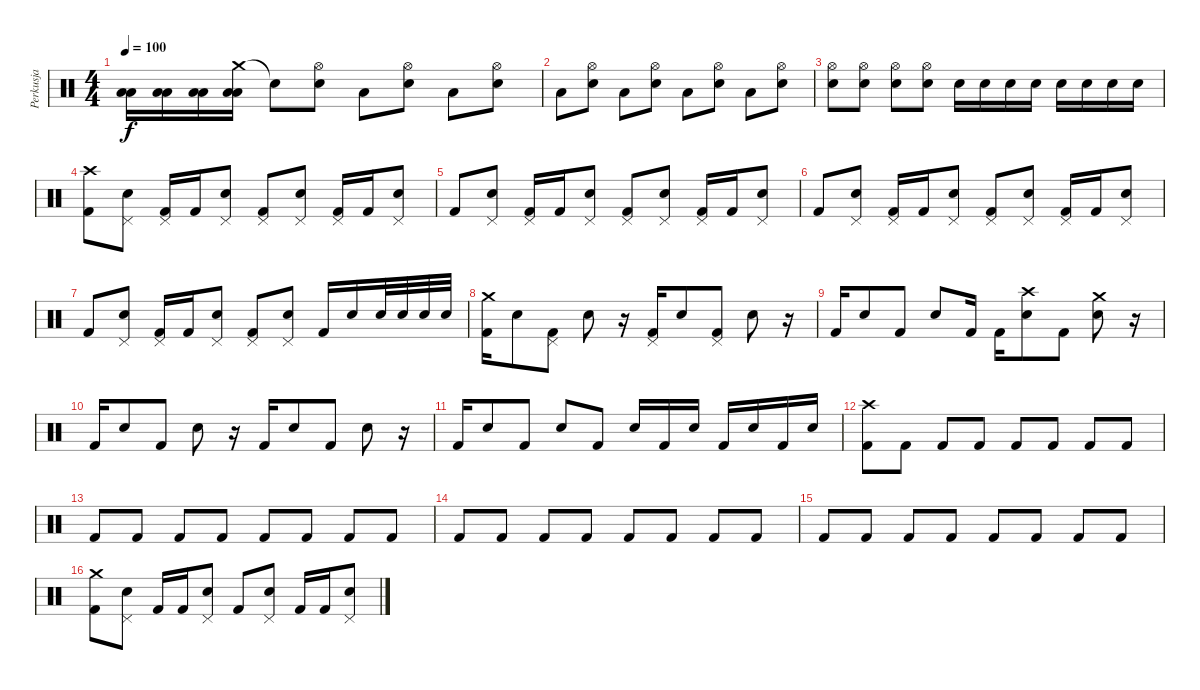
\track ("Perkusja" "Perkusja") {instrument percussion}
\staff {score}
\articulation defaults
\ts (4 4)
\tempo 100
\clef neutral
\ks c
("Low Tom (hit)" "Low Tom (hit)").16{dy f} ("Low Tom (hit)" "Low Tom (hit)").16 ("Low Tom (hit)" "Low Tom (hit)").16 ("Crash medium (hit)" "Low Tom (hit)" "Low Tom (hit)").16 "Snare (hit)"{t}.8 ("Hi-Hat (open)" "Snare (hit) 2").8 "Low Tom (hit)".8 ("Hi-Hat (open)" "Snare (hit) 2").8 "Low Tom (hit)".8 ("Hi-Hat (open)" "Snare (hit) 2").8 |
"Low Tom (hit)".8 ("Hi-Hat (open)" "Snare (hit) 2").8 "Low Tom (hit)".8 ("Hi-Hat (open)" "Snare (hit) 2").8 "Low Tom (hit)".8 ("Hi-Hat (open)" "Snare (hit) 2").8 "Low Tom (hit)".8 ("Hi-Hat (open)" "Snare (hit) 2").8 |
("Hi-Hat (open)" "Snare (hit) 2").8 ("Hi-Hat (open)" "Snare (hit) 2").8 ("Hi-Hat (open)" "Snare (hit) 2").8 ("Hi-Hat (open)" "Snare (hit) 2").8 "Snare (hit) 2".16 "Snare (hit) 2".16 "Snare (hit) 2".16 "Snare (hit) 2".16 "Snare (hit) 2".16 "Snare (hit) 2".16 "Snare (hit) 2".16 "Snare (hit) 2".16 |
("Crash high (hit)" "Kick (hit) 2").8 ("Pedal Hi-Hat (hit)" "Snare (hit) 2").8 ("Pedal Hi-Hat (hit)" "Kick (hit) 2").16 "Kick (hit) 2".16 ("Pedal Hi-Hat (hit)" "Snare (hit) 2").8 ("Pedal Hi-Hat (hit)" "Kick (hit) 2").8 ("Pedal Hi-Hat (hit)" "Snare (hit) 2").8 ("Pedal Hi-Hat (hit)" "Kick (hit) 2").16 "Kick (hit) 2".16 ("Pedal Hi-Hat (hit)" "Snare (hit) 2").8 |
"Kick (hit) 2".8 ("Pedal Hi-Hat (hit)" "Snare (hit) 2").8 ("Pedal Hi-Hat (hit)" "Kick (hit) 2").16 "Kick (hit) 2".16 ("Pedal Hi-Hat (hit)" "Snare (hit) 2").8 ("Pedal Hi-Hat (hit)" "Kick (hit) 2").8 ("Pedal Hi-Hat (hit)" "Snare (hit) 2").8 ("Pedal Hi-Hat (hit)" "Kick (hit) 2").16 "Kick (hit) 2".16 ("Pedal Hi-Hat (hit)" "Snare (hit) 2").8 |
"Kick (hit) 2".8 ("Pedal Hi-Hat (hit)" "Snare (hit) 2").8 ("Pedal Hi-Hat (hit)" "Kick (hit) 2").16 "Kick (hit) 2".16 ("Pedal Hi-Hat (hit)" "Snare (hit) 2").8 ("Pedal Hi-Hat (hit)" "Kick (hit) 2").8 ("Pedal Hi-Hat (hit)" "Snare (hit) 2").8 ("Pedal Hi-Hat (hit)" "Kick (hit) 2").16 "Kick (hit) 2".16 ("Pedal Hi-Hat (hit)" "Snare (hit) 2").8 |
"Kick (hit) 2".8 ("Pedal Hi-Hat (hit)" "Snare (hit) 2").8 ("Pedal Hi-Hat (hit)" "Kick (hit) 2").16 "Kick (hit) 2".16 ("Pedal Hi-Hat (hit)" "Snare (hit) 2").8 ("Pedal Hi-Hat (hit)" "Kick (hit) 2").8 ("Pedal Hi-Hat (hit)" "Snare (hit) 2").8 "Kick (hit) 2".16 "Snare (hit) 2".16 "Snare (hit) 2".32 "Snare (hit) 2".32 "Snare (hit) 2".32 "Snare (hit) 2".32 |
("Crash medium (hit)" "Kick (hit) 2").16 "Snare (hit) 2".8 ("Pedal Hi-Hat (hit)" "Kick (hit) 2").8 "Snare (hit) 2".8 r.16 ("Pedal Hi-Hat (hit)" "Kick (hit) 2").16 "Snare (hit) 2".8 ("Pedal Hi-Hat (hit)" "Kick (hit) 2").8 "Snare (hit) 2".8 r.16 |
"Kick (hit) 2".16 "Snare (hit) 2".8 "Kick (hit) 2".8 "Snare (hit) 2".8 "Kick (hit) 2".16 "Kick (hit) 2".16 ("Crash high (hit)" "Snare (hit) 2").8 "Kick (hit) 2".8 ("Crash medium (hit)" "Snare (hit) 2").8 r.16 |
"Kick (hit) 2".16 "Snare (hit) 2".8 "Kick (hit) 2".8 "Snare (hit) 2".8 r.16 "Kick (hit) 2".16 "Snare (hit) 2".8 "Kick (hit) 2".8 "Snare (hit) 2".8 r.16 |
"Kick (hit) 2".16 "Snare (hit) 2".8 "Kick (hit) 2".8 "Snare (hit) 2".8 "Kick (hit) 2".8 "Snare (hit) 2".16 "Kick (hit) 2".16 "Snare (hit) 2".16 "Kick (hit) 2".16 "Snare (hit) 2".16 "Kick (hit) 2".16 "Snare (hit) 2".16 |
("Crash high (hit)" "Kick (hit) 2").8 "Kick (hit) 2".8 "Kick (hit) 2".8 "Kick (hit) 2".8 "Kick (hit) 2".8 "Kick (hit) 2".8 "Kick (hit) 2".8 "Kick (hit) 2".8 |
"Kick (hit) 2".8 "Kick (hit) 2".8 "Kick (hit) 2".8 "Kick (hit) 2".8 "Kick (hit) 2".8 "Kick (hit) 2".8 "Kick (hit) 2".8 "Kick (hit) 2".8 |
"Kick (hit) 2".8 "Kick (hit) 2".8 "Kick (hit) 2".8 "Kick (hit) 2".8 "Kick (hit) 2".8 "Kick (hit) 2".8 "Kick (hit) 2".8 "Kick (hit) 2".8 |
"Kick (hit) 2".8 "Kick (hit) 2".8 "Kick (hit) 2".8 "Kick (hit) 2".8 "Kick (hit) 2".8 "Kick (hit) 2".8 "Kick (hit) 2".8 "Kick (hit) 2".8 |
("Crash medium (hit)" "Kick (hit) 2").8 ("Pedal Hi-Hat (hit)" "Snare (hit) 2").8 "Kick (hit) 2".16 "Kick (hit) 2".16 ("Pedal Hi-Hat (hit)" "Snare (hit) 2").8 "Kick (hit) 2".8 ("Pedal Hi-Hat (hit)" "Snare (hit) 2").8 "Kick (hit) 2".16 "Kick (hit) 2".16 ("Pedal Hi-Hat (hit)" "Snare (hit) 2").8
